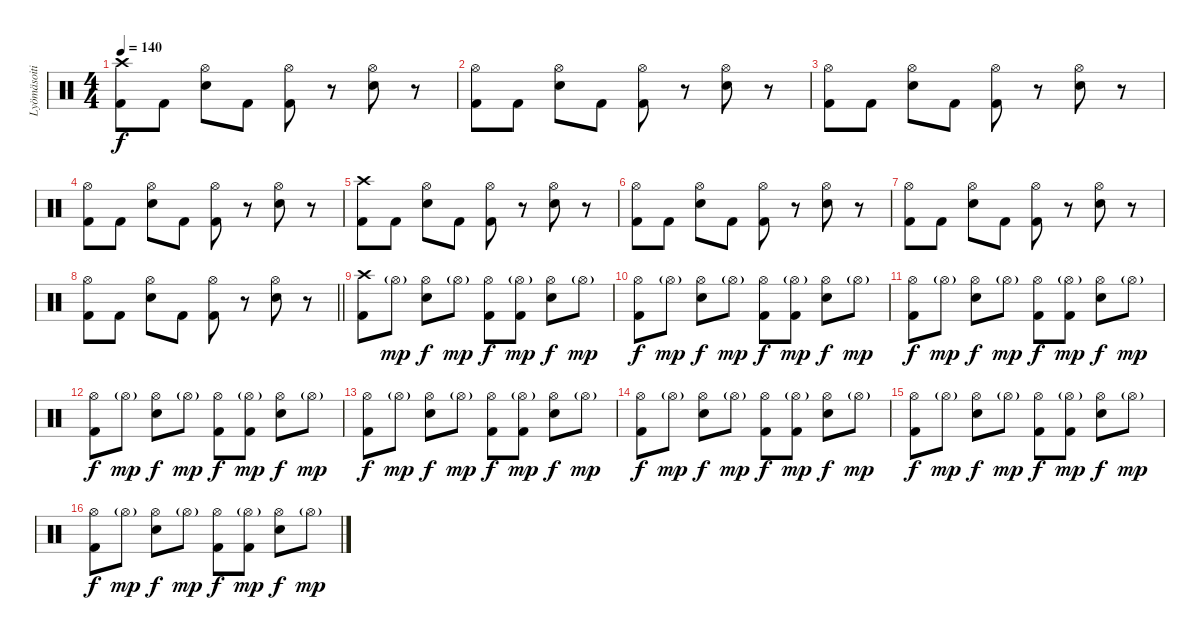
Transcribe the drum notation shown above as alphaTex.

\track ("Lyömäsoitin" "Lyömäsoiti") {instrument percussion}
\staff {score}
\articulation defaults
\ts (4 4)
\tempo 140
\clef neutral
\ks c
("Crash high (hit)" "Kick (hit) 2").8{dy f} "Kick (hit) 2".8 ("Hi-Hat (open)" "Electric Snare (hit)").8 "Kick (hit) 2".8 ("Hi-Hat (open)" "Kick (hit) 2").8 r.8 ("Hi-Hat (open)" "Electric Snare (hit)").8 r.8 |
("Hi-Hat (open)" "Kick (hit) 2").8 "Kick (hit) 2".8 ("Hi-Hat (open)" "Electric Snare (hit)").8 "Kick (hit) 2".8 ("Hi-Hat (open)" "Kick (hit) 2").8 r.8 ("Hi-Hat (open)" "Electric Snare (hit)").8 r.8 |
("Hi-Hat (open)" "Kick (hit) 2").8 "Kick (hit) 2".8 ("Hi-Hat (open)" "Electric Snare (hit)").8 "Kick (hit) 2".8 ("Hi-Hat (open)" "Kick (hit) 2").8 r.8 ("Hi-Hat (open)" "Electric Snare (hit)").8 r.8 |
("Hi-Hat (open)" "Kick (hit) 2").8 "Kick (hit) 2".8 ("Hi-Hat (open)" "Electric Snare (hit)").8 "Kick (hit) 2".8 ("Hi-Hat (open)" "Kick (hit) 2").8 r.8 ("Hi-Hat (open)" "Electric Snare (hit)").8 r.8 |
("Crash high (hit)" "Kick (hit) 2").8 "Kick (hit) 2".8 ("Hi-Hat (open)" "Electric Snare (hit)").8 "Kick (hit) 2".8 ("Hi-Hat (open)" "Kick (hit) 2").8 r.8 ("Hi-Hat (open)" "Electric Snare (hit)").8 r.8 |
("Hi-Hat (open)" "Kick (hit) 2").8 "Kick (hit) 2".8 ("Hi-Hat (open)" "Electric Snare (hit)").8 "Kick (hit) 2".8 ("Hi-Hat (open)" "Kick (hit) 2").8 r.8 ("Hi-Hat (open)" "Electric Snare (hit)").8 r.8 |
("Hi-Hat (open)" "Kick (hit) 2").8 "Kick (hit) 2".8 ("Hi-Hat (open)" "Electric Snare (hit)").8 "Kick (hit) 2".8 ("Hi-Hat (open)" "Kick (hit) 2").8 r.8 ("Hi-Hat (open)" "Electric Snare (hit)").8 r.8 |
\barLineRight lightlight
("Hi-Hat (open)" "Kick (hit) 2").8 "Kick (hit) 2".8 ("Hi-Hat (open)" "Electric Snare (hit)").8 "Kick (hit) 2".8 ("Hi-Hat (open)" "Kick (hit) 2").8 r.8 ("Hi-Hat (open)" "Electric Snare (hit)").8 r.8 |
("Crash high (hit)" "Kick (hit) 2").8 "Hi-Hat (open)"{g}.8{dy mp} ("Hi-Hat (open)" "Electric Snare (hit)").8{dy f} "Hi-Hat (open)"{g}.8{dy mp} ("Hi-Hat (open)" "Kick (hit) 2").8{dy f} ("Hi-Hat (open)"{g} "Kick (hit) 2").8{dy mp} ("Hi-Hat (open)" "Electric Snare (hit)").8{dy f} "Hi-Hat (open)"{g}.8{dy mp} |
("Hi-Hat (open)" "Kick (hit) 2").8{dy f} "Hi-Hat (open)"{g}.8{dy mp} ("Hi-Hat (open)" "Electric Snare (hit)").8{dy f} "Hi-Hat (open)"{g}.8{dy mp} ("Hi-Hat (open)" "Kick (hit) 2").8{dy f} ("Hi-Hat (open)"{g} "Kick (hit) 2").8{dy mp} ("Hi-Hat (open)" "Electric Snare (hit)").8{dy f} "Hi-Hat (open)"{g}.8{dy mp} |
("Hi-Hat (open)" "Kick (hit) 2").8{dy f} "Hi-Hat (open)"{g}.8{dy mp} ("Hi-Hat (open)" "Electric Snare (hit)").8{dy f} "Hi-Hat (open)"{g}.8{dy mp} ("Hi-Hat (open)" "Kick (hit) 2").8{dy f} ("Hi-Hat (open)"{g} "Kick (hit) 2").8{dy mp} ("Hi-Hat (open)" "Electric Snare (hit)").8{dy f} "Hi-Hat (open)"{g}.8{dy mp} |
("Hi-Hat (open)" "Kick (hit) 2").8{dy f} "Hi-Hat (open)"{g}.8{dy mp} ("Hi-Hat (open)" "Electric Snare (hit)").8{dy f} "Hi-Hat (open)"{g}.8{dy mp} ("Hi-Hat (open)" "Kick (hit) 2").8{dy f} ("Hi-Hat (open)"{g} "Kick (hit) 2").8{dy mp} ("Hi-Hat (open)" "Electric Snare (hit)").8{dy f} "Hi-Hat (open)"{g}.8{dy mp} |
("Hi-Hat (open)" "Kick (hit) 2").8{dy f} "Hi-Hat (open)"{g}.8{dy mp} ("Hi-Hat (open)" "Electric Snare (hit)").8{dy f} "Hi-Hat (open)"{g}.8{dy mp} ("Hi-Hat (open)" "Kick (hit) 2").8{dy f} ("Hi-Hat (open)"{g} "Kick (hit) 2").8{dy mp} ("Hi-Hat (open)" "Electric Snare (hit)").8{dy f} "Hi-Hat (open)"{g}.8{dy mp} |
("Hi-Hat (open)" "Kick (hit) 2").8{dy f} "Hi-Hat (open)"{g}.8{dy mp} ("Hi-Hat (open)" "Electric Snare (hit)").8{dy f} "Hi-Hat (open)"{g}.8{dy mp} ("Hi-Hat (open)" "Kick (hit) 2").8{dy f} ("Hi-Hat (open)"{g} "Kick (hit) 2").8{dy mp} ("Hi-Hat (open)" "Electric Snare (hit)").8{dy f} "Hi-Hat (open)"{g}.8{dy mp} |
("Hi-Hat (open)" "Kick (hit) 2").8{dy f} "Hi-Hat (open)"{g}.8{dy mp} ("Hi-Hat (open)" "Electric Snare (hit)").8{dy f} "Hi-Hat (open)"{g}.8{dy mp} ("Hi-Hat (open)" "Kick (hit) 2").8{dy f} ("Hi-Hat (open)"{g} "Kick (hit) 2").8{dy mp} ("Hi-Hat (open)" "Electric Snare (hit)").8{dy f} "Hi-Hat (open)"{g}.8{dy mp} |
("Hi-Hat (open)" "Kick (hit) 2").8{dy f} "Hi-Hat (open)"{g}.8{dy mp} ("Hi-Hat (open)" "Electric Snare (hit)").8{dy f} "Hi-Hat (open)"{g}.8{dy mp} ("Hi-Hat (open)" "Kick (hit) 2").8{dy f} ("Hi-Hat (open)"{g} "Kick (hit) 2").8{dy mp} ("Hi-Hat (open)" "Electric Snare (hit)").8{dy f} "Hi-Hat (open)"{g}.8{dy mp}
